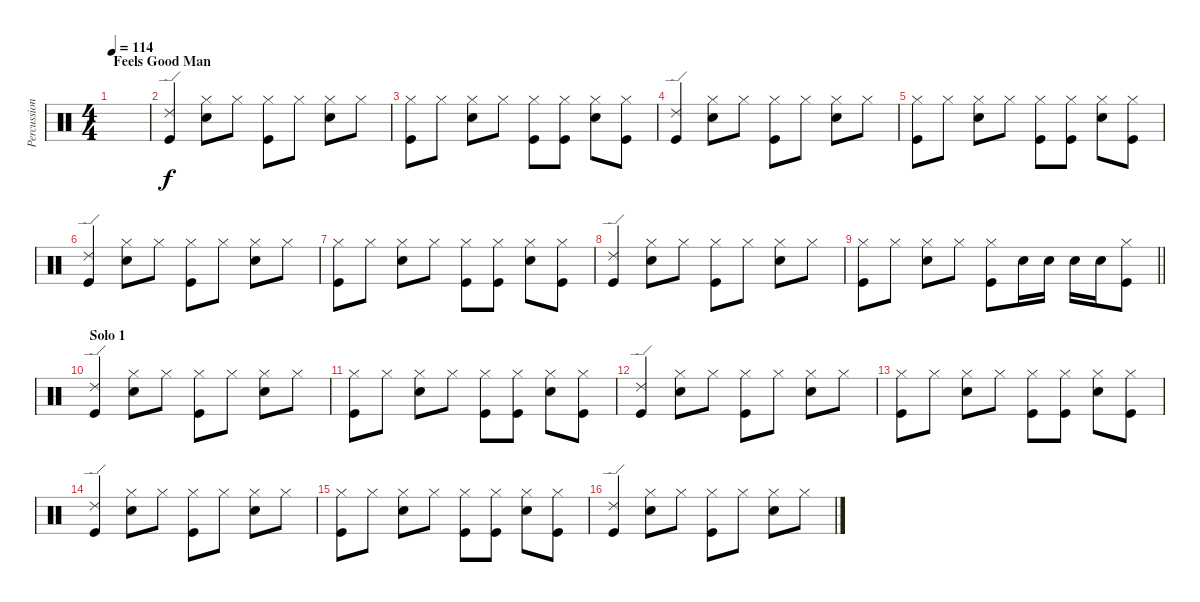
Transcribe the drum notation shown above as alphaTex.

\track ("Percussion" "Percussion") {instrument percussion}
\staff {score}
\articulation defaults
\ts (4 4)
\section ("" "Feels Good Man")
\tempo 114
\clef neutral
\ks c
|
("Ride (edge) 2" "Kick (hit)").4 ("Hi-Hat (closed)" "Snare (hit) 2").8 "Hi-Hat (closed)".8 ("Hi-Hat (closed)" "Kick (hit)").8 "Hi-Hat (closed)".8 ("Hi-Hat (closed)" "Snare (hit) 2").8 "Hi-Hat (closed)".8 |
("Hi-Hat (closed)" "Kick (hit)").8 "Hi-Hat (closed)".8 ("Hi-Hat (closed)" "Snare (hit) 2").8 "Hi-Hat (closed)".8 ("Hi-Hat (closed)" "Kick (hit)").8 ("Hi-Hat (closed)" "Kick (hit)").8 ("Hi-Hat (closed)" "Snare (hit) 2").8 ("Hi-Hat (closed)" "Kick (hit)").8 |
("Ride (edge) 2" "Kick (hit)").4 ("Hi-Hat (closed)" "Snare (hit) 2").8 "Hi-Hat (closed)".8 ("Hi-Hat (closed)" "Kick (hit)").8 "Hi-Hat (closed)".8 ("Hi-Hat (closed)" "Snare (hit) 2").8 "Hi-Hat (closed)".8 |
("Hi-Hat (closed)" "Kick (hit)").8 "Hi-Hat (closed)".8 ("Hi-Hat (closed)" "Snare (hit) 2").8 "Hi-Hat (closed)".8 ("Hi-Hat (closed)" "Kick (hit)").8 ("Hi-Hat (closed)" "Kick (hit)").8 ("Hi-Hat (closed)" "Snare (hit) 2").8 ("Hi-Hat (closed)" "Kick (hit)").8 |
("Ride (edge) 2" "Kick (hit)").4 ("Hi-Hat (closed)" "Snare (hit) 2").8 "Hi-Hat (closed)".8 ("Hi-Hat (closed)" "Kick (hit)").8 "Hi-Hat (closed)".8 ("Hi-Hat (closed)" "Snare (hit) 2").8 "Hi-Hat (closed)".8 |
("Hi-Hat (closed)" "Kick (hit)").8 "Hi-Hat (closed)".8 ("Hi-Hat (closed)" "Snare (hit) 2").8 "Hi-Hat (closed)".8 ("Hi-Hat (closed)" "Kick (hit)").8 ("Hi-Hat (closed)" "Kick (hit)").8 ("Hi-Hat (closed)" "Snare (hit) 2").8 ("Hi-Hat (closed)" "Kick (hit)").8 |
("Ride (edge) 2" "Kick (hit)").4 ("Hi-Hat (closed)" "Snare (hit) 2").8 "Hi-Hat (closed)".8 ("Hi-Hat (closed)" "Kick (hit)").8 "Hi-Hat (closed)".8 ("Hi-Hat (closed)" "Snare (hit) 2").8 "Hi-Hat (closed)".8 |
\barLineRight lightlight
("Hi-Hat (closed)" "Kick (hit)").8 "Hi-Hat (closed)".8 ("Hi-Hat (closed)" "Snare (hit) 2").8 "Hi-Hat (closed)".8 ("Hi-Hat (closed)" "Kick (hit)").8 "Snare (hit) 2".16 "Snare (hit) 2".16 "Snare (hit) 2".16 "Snare (hit) 2".16 ("Hi-Hat (closed)" "Kick (hit)").8 |
\section ("" "Solo 1")
("Ride (edge) 2" "Kick (hit)").4 ("Hi-Hat (closed)" "Snare (hit) 2").8 "Hi-Hat (closed)".8 ("Hi-Hat (closed)" "Kick (hit)").8 "Hi-Hat (closed)".8 ("Hi-Hat (closed)" "Snare (hit) 2").8 "Hi-Hat (closed)".8 |
("Hi-Hat (closed)" "Kick (hit)").8 "Hi-Hat (closed)".8 ("Hi-Hat (closed)" "Snare (hit) 2").8 "Hi-Hat (closed)".8 ("Hi-Hat (closed)" "Kick (hit)").8 ("Hi-Hat (closed)" "Kick (hit)").8 ("Hi-Hat (closed)" "Snare (hit) 2").8 ("Hi-Hat (closed)" "Kick (hit)").8 |
("Ride (edge) 2" "Kick (hit)").4 ("Hi-Hat (closed)" "Snare (hit) 2").8 "Hi-Hat (closed)".8 ("Hi-Hat (closed)" "Kick (hit)").8 "Hi-Hat (closed)".8 ("Hi-Hat (closed)" "Snare (hit) 2").8 "Hi-Hat (closed)".8 |
("Hi-Hat (closed)" "Kick (hit)").8 "Hi-Hat (closed)".8 ("Hi-Hat (closed)" "Snare (hit) 2").8 "Hi-Hat (closed)".8 ("Hi-Hat (closed)" "Kick (hit)").8 ("Hi-Hat (closed)" "Kick (hit)").8 ("Hi-Hat (closed)" "Snare (hit) 2").8 ("Hi-Hat (closed)" "Kick (hit)").8 |
("Ride (edge) 2" "Kick (hit)").4 ("Hi-Hat (closed)" "Snare (hit) 2").8 "Hi-Hat (closed)".8 ("Hi-Hat (closed)" "Kick (hit)").8 "Hi-Hat (closed)".8 ("Hi-Hat (closed)" "Snare (hit) 2").8 "Hi-Hat (closed)".8 |
("Hi-Hat (closed)" "Kick (hit)").8 "Hi-Hat (closed)".8 ("Hi-Hat (closed)" "Snare (hit) 2").8 "Hi-Hat (closed)".8 ("Hi-Hat (closed)" "Kick (hit)").8 ("Hi-Hat (closed)" "Kick (hit)").8 ("Hi-Hat (closed)" "Snare (hit) 2").8 ("Hi-Hat (closed)" "Kick (hit)").8 |
("Ride (edge) 2" "Kick (hit)").4 ("Hi-Hat (closed)" "Snare (hit) 2").8 "Hi-Hat (closed)".8 ("Hi-Hat (closed)" "Kick (hit)").8 "Hi-Hat (closed)".8 ("Hi-Hat (closed)" "Snare (hit) 2").8 "Hi-Hat (closed)".8
